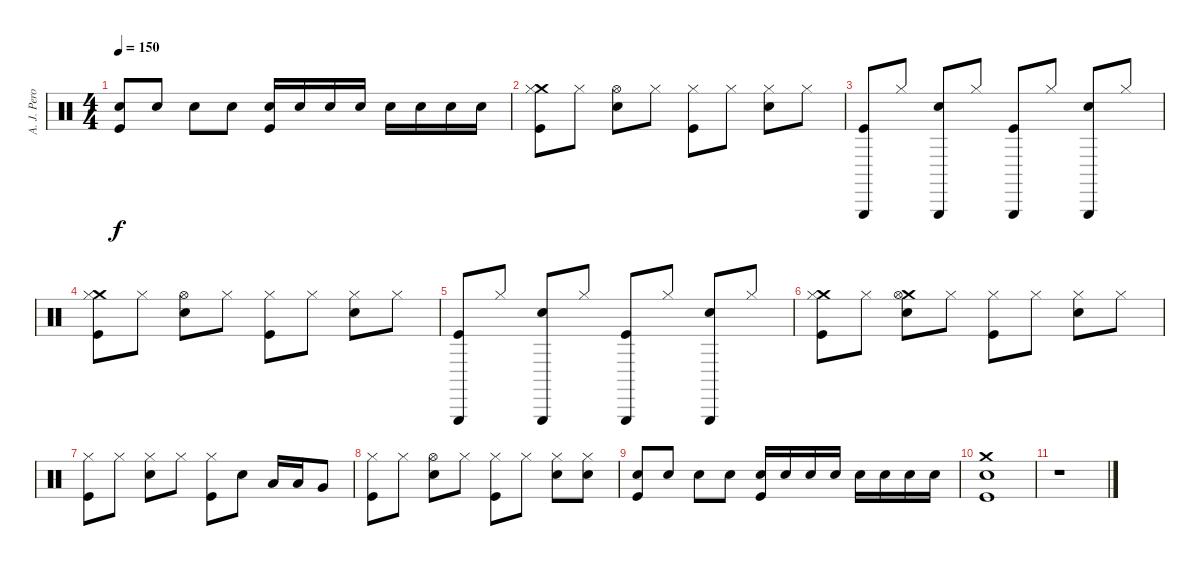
\track ("A. J. Pero - Drums" "A. J. Pero") {instrument percussion}
\staff {score}
\articulation defaults
\ts (4 4)
\tempo 150
\clef neutral
\ks c
("Snare (hit) 2" "Kick (hit)").8{dy f} "Snare (hit) 2".8 "Snare (hit) 2".8 "Snare (hit) 2".8 ("Snare (hit) 2" "Kick (hit)").16 "Snare (hit) 2".16 "Snare (hit) 2".16 "Snare (hit) 2".16 "Snare (hit) 2".16 "Snare (hit) 2".16 "Snare (hit) 2".16 "Snare (hit) 2".16 |
("Crash medium (hit)" "Hi-Hat (closed)" "Kick (hit)").8 "Hi-Hat (closed)".8 ("Hi-Hat (open)" "Snare (hit) 2").8 "Hi-Hat (closed)".8 ("Hi-Hat (closed)" "Kick (hit)").8 "Hi-Hat (closed)".8 ("Hi-Hat (closed)" "Snare (hit) 2").8 "Hi-Hat (closed)".8 |
("Triangle (hit)" "Kick (hit)").8 "Hi-Hat (closed)".8 ("Triangle (hit)" "Snare (hit) 2").8 "Hi-Hat (closed)".8 ("Triangle (hit)" "Kick (hit)").8 "Hi-Hat (closed)".8 ("Triangle (hit)" "Snare (hit) 2").8 "Hi-Hat (closed)".8 |
("Crash medium (hit)" "Hi-Hat (closed)" "Kick (hit)").8 "Hi-Hat (closed)".8 ("Hi-Hat (open)" "Snare (hit) 2").8 "Hi-Hat (closed)".8 ("Hi-Hat (closed)" "Kick (hit)").8 "Hi-Hat (closed)".8 ("Hi-Hat (closed)" "Snare (hit) 2").8 "Hi-Hat (closed)".8 |
("Triangle (hit)" "Kick (hit)").8 "Hi-Hat (closed)".8 ("Triangle (hit)" "Snare (hit) 2").8 "Hi-Hat (closed)".8 ("Triangle (hit)" "Kick (hit)").8 "Hi-Hat (closed)".8 ("Triangle (hit)" "Snare (hit) 2").8 "Hi-Hat (closed)".8 |
("Crash medium (hit)" "Hi-Hat (closed)" "Kick (hit)").8 "Hi-Hat (closed)".8 ("Crash medium (hit)" "Hi-Hat (open)" "Snare (hit) 2").8 "Hi-Hat (closed)".8 ("Hi-Hat (closed)" "Kick (hit)").8 "Hi-Hat (closed)".8 ("Hi-Hat (closed)" "Snare (hit) 2").8 "Hi-Hat (closed)".8 |
("Hi-Hat (closed)" "Kick (hit)").8 "Hi-Hat (closed)".8 ("Hi-Hat (closed)" "Snare (hit) 2").8 "Hi-Hat (closed)".8 ("Hi-Hat (closed)" "Kick (hit)").8 "Snare (hit) 2".8 "Low Floor Tom (hit)".16 "Low Floor Tom (hit)".16 "Very Low Tom (hit)".8 |
("Hi-Hat (closed)" "Kick (hit)").8 "Hi-Hat (closed)".8 ("Hi-Hat (open)" "Snare (hit) 2").8 "Hi-Hat (closed)".8 ("Hi-Hat (closed)" "Kick (hit)").8 "Hi-Hat (closed)".8 ("Hi-Hat (closed)" "Snare (hit) 2").8 ("Hi-Hat (closed)" "Snare (hit) 2").8 |
("Snare (hit) 2" "Kick (hit)").8 "Snare (hit) 2".8 "Snare (hit) 2".8 "Snare (hit) 2".8 ("Snare (hit) 2" "Kick (hit)").16 "Snare (hit) 2".16 "Snare (hit) 2".16 "Snare (hit) 2".16 "Snare (hit) 2".16 "Snare (hit) 2".16 "Snare (hit) 2".16 "Snare (hit) 2".16 |
("Crash medium (hit)" "Snare (hit) 2" "Kick (hit)").1 |
r.1
